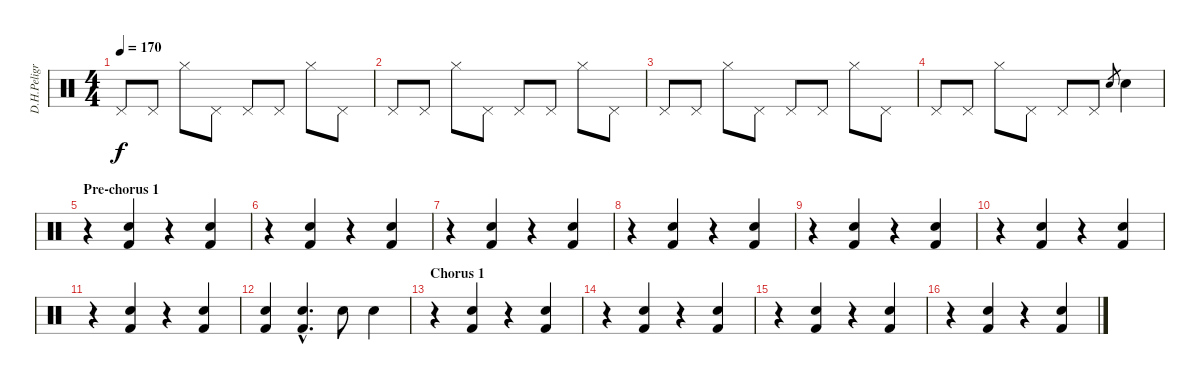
\track ("D.H.Peligro" "D.H.Peligr") {instrument percussion}
\staff {score}
\articulation defaults
\ts (4 4)
\tempo 170
\clef neutral
\ks c "Pedal Hi-Hat (hit)".8{dy f} "Pedal Hi-Hat (hit)".8 "Hi-Hat (closed)".8 "Pedal Hi-Hat (hit)".8 "Pedal Hi-Hat (hit)".8 "Pedal Hi-Hat (hit)".8 "Hi-Hat (closed)".8 "Pedal Hi-Hat (hit)".8
|
"Pedal Hi-Hat (hit)".8 "Pedal Hi-Hat (hit)".8 "Hi-Hat (closed)".8 "Pedal Hi-Hat (hit)".8 "Pedal Hi-Hat (hit)".8 "Pedal Hi-Hat (hit)".8 "Hi-Hat (closed)".8 "Pedal Hi-Hat (hit)".8 |
"Pedal Hi-Hat (hit)".8 "Pedal Hi-Hat (hit)".8 "Hi-Hat (closed)".8 "Pedal Hi-Hat (hit)".8 "Pedal Hi-Hat (hit)".8 "Pedal Hi-Hat (hit)".8 "Hi-Hat (closed)".8 "Pedal Hi-Hat (hit)".8 |
"Pedal Hi-Hat (hit)".8 "Pedal Hi-Hat (hit)".8 "Hi-Hat (closed)".8 "Pedal Hi-Hat (hit)".8 "Pedal Hi-Hat (hit)".8 "Pedal Hi-Hat (hit)".8 "Electric Snare (hit)".8{gr} "Electric Snare (hit)".4 |
\section ("" "Pre-chorus 1")
r.4 ("Electric Snare (hit)" "Kick (hit) 2").4 r.4 ("Electric Snare (hit)" "Kick (hit) 2").4 |
r.4 ("Electric Snare (hit)" "Kick (hit) 2").4 r.4 ("Electric Snare (hit)" "Kick (hit) 2").4 |
r.4 ("Electric Snare (hit)" "Kick (hit) 2").4 r.4 ("Electric Snare (hit)" "Kick (hit) 2").4 |
r.4 ("Electric Snare (hit)" "Kick (hit) 2").4 r.4 ("Electric Snare (hit)" "Kick (hit) 2").4 |
r.4 ("Electric Snare (hit)" "Kick (hit) 2").4 r.4 ("Electric Snare (hit)" "Kick (hit) 2").4 |
r.4 ("Electric Snare (hit)" "Kick (hit) 2").4 r.4 ("Electric Snare (hit)" "Kick (hit) 2").4 |
r.4 ("Electric Snare (hit)" "Kick (hit) 2").4 r.4 ("Electric Snare (hit)" "Kick (hit) 2").4 |
("Electric Snare (hit)" "Kick (hit) 2").4 ("Electric Snare (hit)"{hac} "Kick (hit) 2"{hac}).4{d} "Electric Snare (hit)".8 "Electric Snare (hit)".4 |
\section ("" "Chorus 1")
r.4 ("Electric Snare (hit)" "Kick (hit) 2").4 r.4 ("Electric Snare (hit)" "Kick (hit) 2").4 |
r.4 ("Electric Snare (hit)" "Kick (hit) 2").4 r.4 ("Electric Snare (hit)" "Kick (hit) 2").4 |
r.4 ("Electric Snare (hit)" "Kick (hit) 2").4 r.4 ("Electric Snare (hit)" "Kick (hit) 2").4 |
r.4 ("Electric Snare (hit)" "Kick (hit) 2").4 r.4 ("Electric Snare (hit)" "Kick (hit) 2").4
